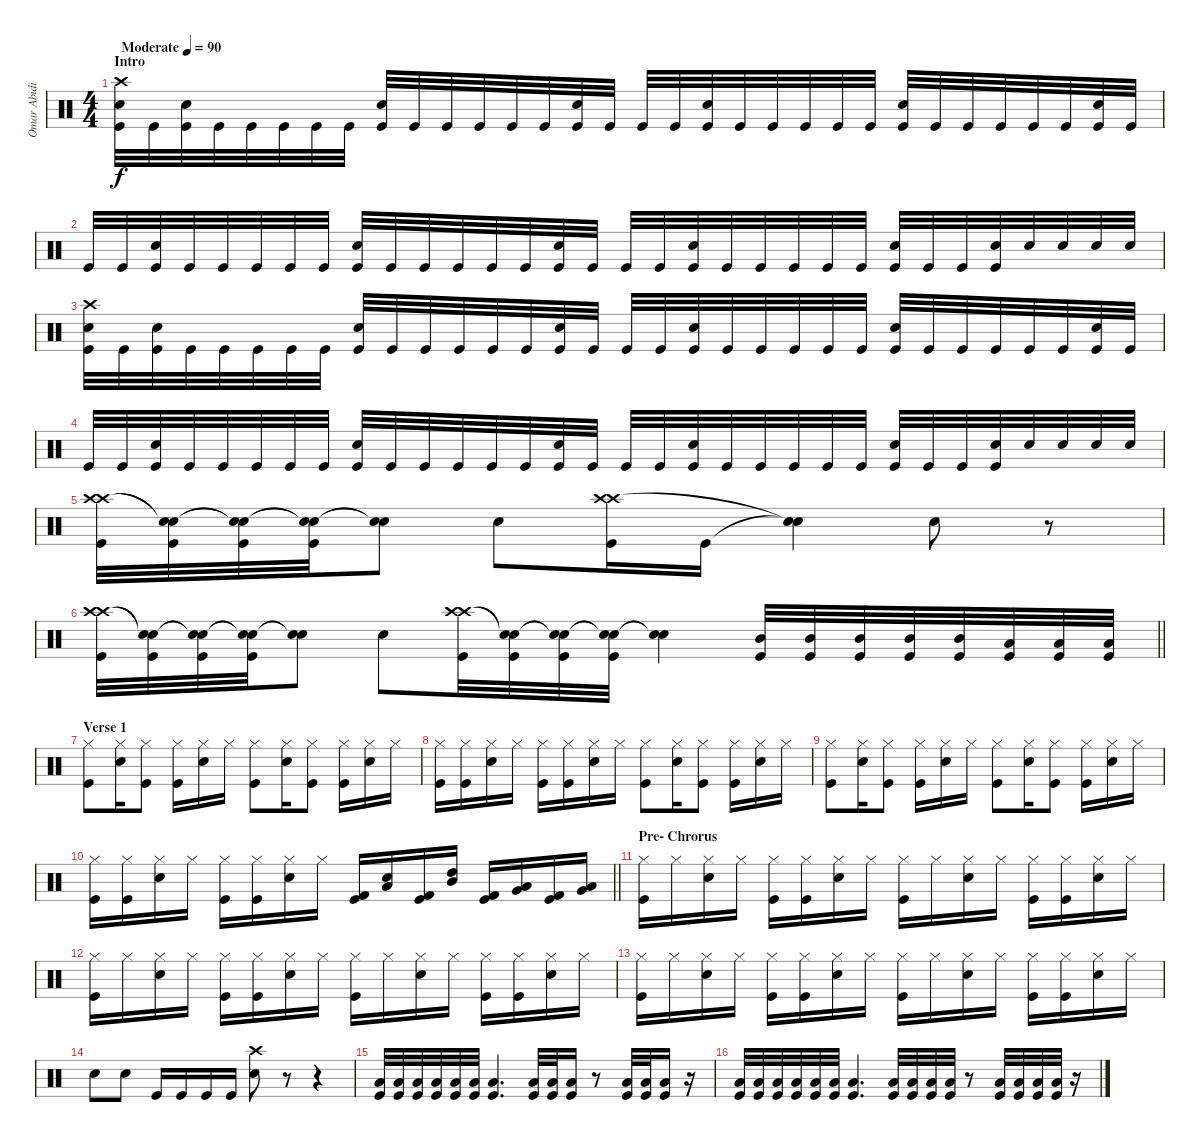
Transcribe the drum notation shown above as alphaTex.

\track ("Omar Abidi" "Omar Abidi") {instrument percussion}
\staff {score}
\articulation defaults
\ts (4 4)
\section ("" "Intro")
\tempo (90 "Moderate")
\clef neutral
\ks c
("Crash high (hit)" "Electric Snare (hit)" "Kick (hit)").32{dy f} "Kick (hit)".32 ("Electric Snare (hit)" "Kick (hit)").32 "Kick (hit)".32 "Kick (hit)".32 "Kick (hit)".32 "Kick (hit)".32 "Kick (hit)".32 ("Electric Snare (hit)" "Kick (hit)").32 "Kick (hit)".32 "Kick (hit)".32 "Kick (hit)".32 "Kick (hit)".32 "Kick (hit)".32 ("Electric Snare (hit)" "Kick (hit)").32 "Kick (hit)".32 "Kick (hit)".32 "Kick (hit)".32 ("Electric Snare (hit)" "Kick (hit)").32 "Kick (hit)".32 "Kick (hit)".32 "Kick (hit)".32 "Kick (hit)".32 "Kick (hit)".32 ("Electric Snare (hit)" "Kick (hit)").32 "Kick (hit)".32 "Kick (hit)".32 "Kick (hit)".32 "Kick (hit)".32 "Kick (hit)".32 ("Electric Snare (hit)" "Kick (hit)").32 "Kick (hit)".32 |
"Kick (hit)".32 "Kick (hit)".32 ("Electric Snare (hit)" "Kick (hit)").32 "Kick (hit)".32 "Kick (hit)".32 "Kick (hit)".32 "Kick (hit)".32 "Kick (hit)".32 ("Electric Snare (hit)" "Kick (hit)").32 "Kick (hit)".32 "Kick (hit)".32 "Kick (hit)".32 "Kick (hit)".32 "Kick (hit)".32 ("Electric Snare (hit)" "Kick (hit)").32 "Kick (hit)".32 "Kick (hit)".32 "Kick (hit)".32 ("Electric Snare (hit)" "Kick (hit)").32 "Kick (hit)".32 "Kick (hit)".32 "Kick (hit)".32 "Kick (hit)".32 "Kick (hit)".32 ("Electric Snare (hit)" "Kick (hit)").32 "Kick (hit)".32 "Kick (hit)".32 ("Electric Snare (hit)" "Kick (hit)").32 "Electric Snare (hit)".32 "Electric Snare (hit)".32 "Electric Snare (hit)".32 "Electric Snare (hit)".32 |
("Crash high (hit)" "Electric Snare (hit)" "Kick (hit)").32 "Kick (hit)".32 ("Electric Snare (hit)" "Kick (hit)").32 "Kick (hit)".32 "Kick (hit)".32 "Kick (hit)".32 "Kick (hit)".32 "Kick (hit)".32 ("Electric Snare (hit)" "Kick (hit)").32 "Kick (hit)".32 "Kick (hit)".32 "Kick (hit)".32 "Kick (hit)".32 "Kick (hit)".32 ("Electric Snare (hit)" "Kick (hit)").32 "Kick (hit)".32 "Kick (hit)".32 "Kick (hit)".32 ("Electric Snare (hit)" "Kick (hit)").32 "Kick (hit)".32 "Kick (hit)".32 "Kick (hit)".32 "Kick (hit)".32 "Kick (hit)".32 ("Electric Snare (hit)" "Kick (hit)").32 "Kick (hit)".32 "Kick (hit)".32 "Kick (hit)".32 "Kick (hit)".32 "Kick (hit)".32 ("Electric Snare (hit)" "Kick (hit)").32 "Kick (hit)".32 |
"Kick (hit)".32 "Kick (hit)".32 ("Electric Snare (hit)" "Kick (hit)").32 "Kick (hit)".32 "Kick (hit)".32 "Kick (hit)".32 "Kick (hit)".32 "Kick (hit)".32 ("Electric Snare (hit)" "Kick (hit)").32 "Kick (hit)".32 "Kick (hit)".32 "Kick (hit)".32 "Kick (hit)".32 "Kick (hit)".32 ("Electric Snare (hit)" "Kick (hit)").32 "Kick (hit)".32 "Kick (hit)".32 "Kick (hit)".32 ("Electric Snare (hit)" "Kick (hit)").32 "Kick (hit)".32 "Kick (hit)".32 "Kick (hit)".32 "Kick (hit)".32 "Kick (hit)".32 ("Electric Snare (hit)" "Kick (hit)").32 "Kick (hit)".32 "Kick (hit)".32 ("Electric Snare (hit)" "Kick (hit)").32 "Electric Snare (hit)".32 "Electric Snare (hit)".32 "Electric Snare (hit)".32 "Electric Snare (hit)".32 |
("Crash high (hit)" "Crash high (hit)" "Kick (hit)").32 ("Snare (hit)"{t} "Snare (hit)"{t} "Kick (hit)").32 ("Snare (hit)"{t} "Snare (hit)"{t} "Kick (hit)").32 ("Snare (hit)"{t} "Snare (hit)"{t} "Kick (hit)").32 ("Snare (hit)"{t} "Snare (hit)"{t}).8 "Snare (hit) 2".8 ("Crash high (hit)" "Crash high (hit)" "Kick (hit)").16 "Kick (hit)".16 ("Snare (hit)"{t} "Snare (hit)"{t}).4 "Snare (hit) 2".8 r.8 |
\barLineRight lightlight
("Crash high (hit)" "Crash high (hit)" "Kick (hit)").32 ("Snare (hit)"{t} "Snare (hit)"{t} "Kick (hit)").32 ("Snare (hit)"{t} "Snare (hit)"{t} "Kick (hit)").32 ("Snare (hit)"{t} "Snare (hit)"{t} "Kick (hit)").32 ("Snare (hit)"{t} "Snare (hit)"{t}).8 "Snare (hit) 2".8 ("Crash high (hit)" "Crash high (hit)" "Kick (hit)").32 ("Snare (hit)"{t} "Snare (hit)"{t} "Kick (hit)").32 ("Snare (hit)"{t} "Snare (hit)"{t} "Kick (hit)").32 ("Snare (hit)"{t} "Snare (hit)"{t} "Kick (hit)").32 ("Snare (hit)"{t} "Snare (hit)"{t}).4 ("Mid Tom (hit)" "Kick (hit)").32 ("Mid Tom (hit)" "Kick (hit)").32 ("Mid Tom (hit)" "Kick (hit)").32 ("Mid Tom (hit)" "Kick (hit)").32 ("Mid Tom (hit)" "Kick (hit)").32 ("Low Floor Tom (hit)" "Kick (hit)").32 ("Low Floor Tom (hit)" "Kick (hit)").32 ("Low Floor Tom (hit)" "Kick (hit)").32 |
\section ("" "Verse 1")
("Hi-Hat (closed)" "Kick (hit)").8 ("Hi-Hat (closed)" "Snare (hit) 2").16 ("Hi-Hat (closed)" "Kick (hit)").8 ("Hi-Hat (closed)" "Kick (hit)").16 ("Hi-Hat (closed)" "Snare (hit) 2").16 "Hi-Hat (closed)".16 ("Hi-Hat (closed)" "Kick (hit)").8 ("Hi-Hat (closed)" "Snare (hit) 2").16 ("Hi-Hat (closed)" "Kick (hit)").8 ("Hi-Hat (closed)" "Kick (hit)").16 ("Hi-Hat (closed)" "Snare (hit) 2").16 "Hi-Hat (closed)".16 |
("Hi-Hat (closed)" "Kick (hit)").16 ("Hi-Hat (closed)" "Kick (hit)").16 ("Hi-Hat (closed)" "Snare (hit) 2").16 "Hi-Hat (closed)".16 ("Hi-Hat (closed)" "Kick (hit)").16 ("Hi-Hat (closed)" "Kick (hit)").16 ("Hi-Hat (closed)" "Snare (hit) 2").16 "Hi-Hat (closed)".16 ("Hi-Hat (closed)" "Kick (hit)").8 ("Hi-Hat (closed)" "Snare (hit) 2").16 ("Hi-Hat (closed)" "Kick (hit)").8 ("Hi-Hat (closed)" "Kick (hit)").16 ("Hi-Hat (closed)" "Snare (hit) 2").16 "Hi-Hat (closed)".16 |
("Hi-Hat (closed)" "Kick (hit)").8 ("Hi-Hat (closed)" "Snare (hit) 2").16 ("Hi-Hat (closed)" "Kick (hit)").8 ("Hi-Hat (closed)" "Kick (hit)").16 ("Hi-Hat (closed)" "Snare (hit) 2").16 "Hi-Hat (closed)".16 ("Hi-Hat (closed)" "Kick (hit)").8 ("Hi-Hat (closed)" "Snare (hit) 2").16 ("Hi-Hat (closed)" "Kick (hit)").8 ("Hi-Hat (closed)" "Kick (hit)").16 ("Hi-Hat (closed)" "Snare (hit) 2").16 "Hi-Hat (closed)".16 |
\barLineRight lightlight
("Hi-Hat (closed)" "Kick (hit)").16 ("Hi-Hat (closed)" "Kick (hit)").16 ("Hi-Hat (closed)" "Snare (hit) 2").16 "Hi-Hat (closed)".16 ("Hi-Hat (closed)" "Kick (hit)").16 ("Hi-Hat (closed)" "Kick (hit)").16 ("Hi-Hat (closed)" "Snare (hit) 2").16 "Hi-Hat (closed)".16 ("Kick (hit) 2" "Kick (hit)").16 ("Low Floor Tom (hit)" "Snare (hit) 2").16 ("Kick (hit) 2" "Kick (hit)").16 ("Mid Tom (hit)" "High Tom (hit)").16 ("Kick (hit) 2" "Kick (hit)").16 ("Low Tom (hit)" "Very Low Tom (hit)").16 ("Kick (hit) 2" "Kick (hit)").16 ("Very Low Tom (hit)" "Low Floor Tom (hit)").16 |
\section ("" "Pre- Chrorus")
("Hi-Hat (closed)" "Kick (hit)").16 "Hi-Hat (closed)".16 ("Hi-Hat (closed)" "Snare (hit) 2").16 "Hi-Hat (closed)".16 ("Hi-Hat (closed)" "Kick (hit)").16 ("Hi-Hat (closed)" "Kick (hit)").16 ("Hi-Hat (closed)" "Snare (hit) 2").16 "Hi-Hat (closed)".16 ("Hi-Hat (closed)" "Kick (hit)").16 "Hi-Hat (closed)".16 ("Hi-Hat (closed)" "Snare (hit) 2").16 "Hi-Hat (closed)".16 ("Hi-Hat (closed)" "Kick (hit)").16 ("Hi-Hat (closed)" "Kick (hit)").16 ("Hi-Hat (closed)" "Snare (hit) 2").16 "Hi-Hat (closed)".16 |
("Hi-Hat (closed)" "Kick (hit)").16 "Hi-Hat (closed)".16 ("Hi-Hat (closed)" "Snare (hit) 2").16 "Hi-Hat (closed)".16 ("Hi-Hat (closed)" "Kick (hit)").16 ("Hi-Hat (closed)" "Kick (hit)").16 ("Hi-Hat (closed)" "Snare (hit) 2").16 "Hi-Hat (closed)".16 ("Hi-Hat (closed)" "Kick (hit)").16 "Hi-Hat (closed)".16 ("Hi-Hat (closed)" "Snare (hit) 2").16 "Hi-Hat (closed)".16 ("Hi-Hat (closed)" "Kick (hit)").16 ("Hi-Hat (closed)" "Kick (hit)").16 ("Hi-Hat (closed)" "Snare (hit) 2").16 "Hi-Hat (closed)".16 |
("Hi-Hat (closed)" "Kick (hit)").16 "Hi-Hat (closed)".16 ("Hi-Hat (closed)" "Snare (hit) 2").16 "Hi-Hat (closed)".16 ("Hi-Hat (closed)" "Kick (hit)").16 ("Hi-Hat (closed)" "Kick (hit)").16 ("Hi-Hat (closed)" "Snare (hit) 2").16 "Hi-Hat (closed)".16 ("Hi-Hat (closed)" "Kick (hit)").16 "Hi-Hat (closed)".16 ("Hi-Hat (closed)" "Snare (hit) 2").16 "Hi-Hat (closed)".16 ("Hi-Hat (closed)" "Kick (hit)").16 ("Hi-Hat (closed)" "Kick (hit)").16 ("Hi-Hat (closed)" "Snare (hit) 2").16 "Hi-Hat (closed)".16 |
"Snare (hit) 2".8 "Snare (hit) 2".8 "Kick (hit)".16 "Kick (hit)".16 "Kick (hit)".16 "Kick (hit)".16 ("Crash high (hit)" "Snare (hit) 2").8 r.8 r.4 |
("Low Floor Tom (hit)" "Kick (hit)").32 ("Low Floor Tom (hit)" "Kick (hit)").32 ("Low Floor Tom (hit)" "Kick (hit)").32 ("Low Floor Tom (hit)" "Kick (hit)").32 ("Low Floor Tom (hit)" "Kick (hit)").32 ("Low Floor Tom (hit)" "Kick (hit)").32 ("Low Floor Tom (hit)" "Kick (hit)").4{d} ("Low Floor Tom (hit)" "Kick (hit)").32 ("Low Floor Tom (hit)" "Kick (hit)").32 ("Low Floor Tom (hit)" "Kick (hit)").16 r.8 ("Low Floor Tom (hit)" "Kick (hit)").32 ("Low Floor Tom (hit)" "Kick (hit)").32 ("Low Floor Tom (hit)" "Kick (hit)").16 r.16 |
("Low Floor Tom (hit)" "Kick (hit)").32 ("Low Floor Tom (hit)" "Kick (hit)").32 ("Low Floor Tom (hit)" "Kick (hit)").32 ("Low Floor Tom (hit)" "Kick (hit)").32 ("Low Floor Tom (hit)" "Kick (hit)").32 ("Low Floor Tom (hit)" "Kick (hit)").32 ("Low Floor Tom (hit)" "Kick (hit)").4{d} ("Low Floor Tom (hit)" "Kick (hit)").32 ("Low Floor Tom (hit)" "Kick (hit)").32 ("Low Floor Tom (hit)" "Kick (hit)").32 ("Low Floor Tom (hit)" "Kick (hit)").32 r.8 ("Low Floor Tom (hit)" "Kick (hit)").32 ("Low Floor Tom (hit)" "Kick (hit)").32 ("Low Floor Tom (hit)" "Kick (hit)").32 ("Low Floor Tom (hit)" "Kick (hit)").32 r.16
